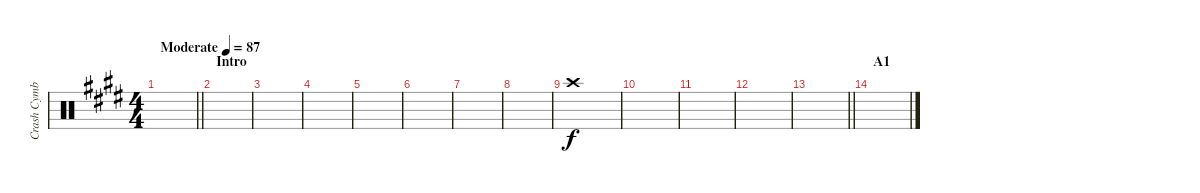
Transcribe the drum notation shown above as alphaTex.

\track ("Crash Cymbal" "Crash Cymb") {instrument percussion}
\staff {score}
\articulation defaults
\ts (4 4)
\tempo (87 "Moderate")
\clef neutral
\barLineRight lightlight
\ks e
|
\section ("" "Intro")
|
|
|
|
|
|
|
"Crash high (hit)".1 |
|
|
|
\barLineRight lightlight
|
\section ("" "A1")
